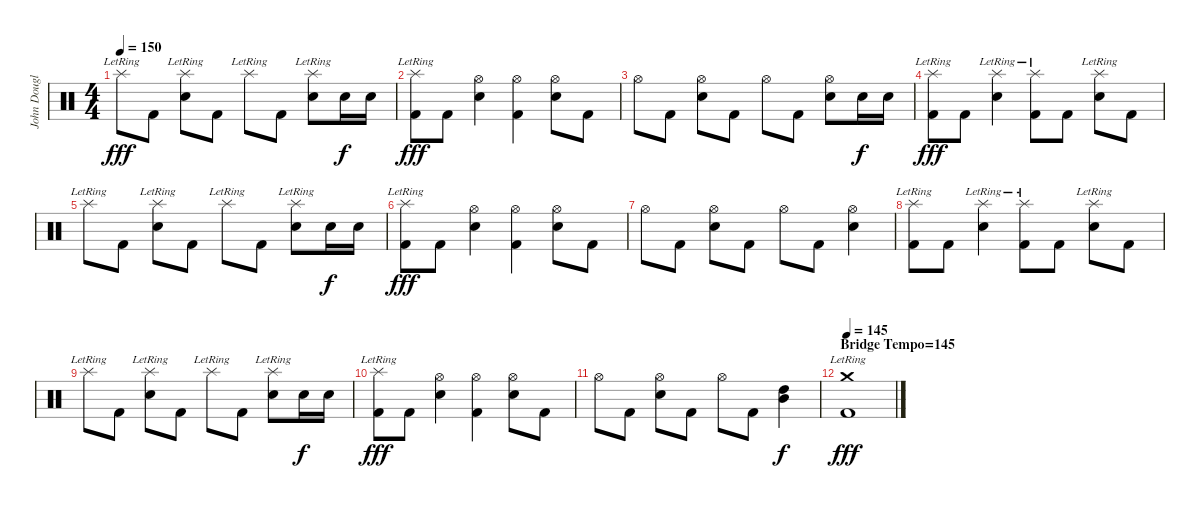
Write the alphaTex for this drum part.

\track ("John Douglas (Drums)" "John Dougl") {instrument percussion}
\staff {score}
\articulation defaults
\ts (4 4)
\tempo 150
\clef neutral
\ks c "Splash (hit)"{lr}.8{dy fff} "Kick (hit) 2".8
("Splash (hit)"{lr} "Snare (hit) 2").8 "Kick (hit) 2".8 "Splash (hit)"{lr}.8 "Kick (hit) 2".8 ("Splash (hit)"{lr} "Snare (hit) 2").8 "Snare (hit) 2".16{dy f} "Snare (hit) 2".16 |
("Splash (hit)"{lr} "Kick (hit) 2").8{dy fff} "Kick (hit) 2".8 ("Hi-Hat (open)" "Snare (hit) 2").4 ("Hi-Hat (open)" "Kick (hit) 2").4 ("Hi-Hat (open)" "Snare (hit) 2").8 "Kick (hit) 2".8 |
"Hi-Hat (open)".8 "Kick (hit) 2".8 ("Hi-Hat (open)" "Snare (hit) 2").8 "Kick (hit) 2".8 "Hi-Hat (open)".8 "Kick (hit) 2".8 ("Hi-Hat (open)" "Snare (hit) 2").8 "Snare (hit) 2".16{dy f} "Snare (hit) 2".16 |
("Splash (hit)"{lr} "Kick (hit) 2").8{dy fff} "Kick (hit) 2".8 ("Splash (hit)"{lr} "Snare (hit) 2").4 ("Splash (hit)"{lr} "Kick (hit) 2").8 "Kick (hit) 2".8 ("Splash (hit)"{lr} "Snare (hit) 2").8 "Kick (hit) 2".8 |
"Splash (hit)"{lr}.8 "Kick (hit) 2".8 ("Splash (hit)"{lr} "Snare (hit) 2").8 "Kick (hit) 2".8 "Splash (hit)"{lr}.8 "Kick (hit) 2".8 ("Splash (hit)"{lr} "Snare (hit) 2").8 "Snare (hit) 2".16{dy f} "Snare (hit) 2".16 |
("Splash (hit)"{lr} "Kick (hit) 2").8{dy fff} "Kick (hit) 2".8 ("Hi-Hat (open)" "Snare (hit) 2").4 ("Hi-Hat (open)" "Kick (hit) 2").4 ("Hi-Hat (open)" "Snare (hit) 2").8 "Kick (hit) 2".8 |
"Hi-Hat (open)".8 "Kick (hit) 2".8 ("Hi-Hat (open)" "Snare (hit) 2").8 "Kick (hit) 2".8 "Hi-Hat (open)".8 "Kick (hit) 2".8 ("Hi-Hat (open)" "Snare (hit) 2").4 |
("Splash (hit)"{lr} "Kick (hit) 2").8 "Kick (hit) 2".8 ("Splash (hit)"{lr} "Snare (hit) 2").4 ("Splash (hit)"{lr} "Kick (hit) 2").8 "Kick (hit) 2".8 ("Splash (hit)"{lr} "Snare (hit) 2").8 "Kick (hit) 2".8 |
"Splash (hit)"{lr}.8 "Kick (hit) 2".8 ("Splash (hit)"{lr} "Snare (hit) 2").8 "Kick (hit) 2".8 "Splash (hit)"{lr}.8 "Kick (hit) 2".8 ("Splash (hit)"{lr} "Snare (hit) 2").8 "Snare (hit) 2".16{dy f} "Snare (hit) 2".16 |
("Splash (hit)"{lr} "Kick (hit) 2").8{dy fff} "Kick (hit) 2".8 ("Hi-Hat (open)" "Snare (hit) 2").4 ("Hi-Hat (open)" "Kick (hit) 2").4 ("Hi-Hat (open)" "Snare (hit) 2").8 "Kick (hit) 2".8 |
"Hi-Hat (open)".8 "Kick (hit) 2".8 ("Hi-Hat (open)" "Snare (hit) 2").8 "Kick (hit) 2".8 "Hi-Hat (open)".8 "Kick (hit) 2".8 ("High Tom (hit)" "Mid Tom (hit)").4{dy f} |
\section ("" "Bridge Tempo=145")
\tempo 145
("Crash medium (hit)"{lr} "Kick (hit) 2").1{dy fff}
